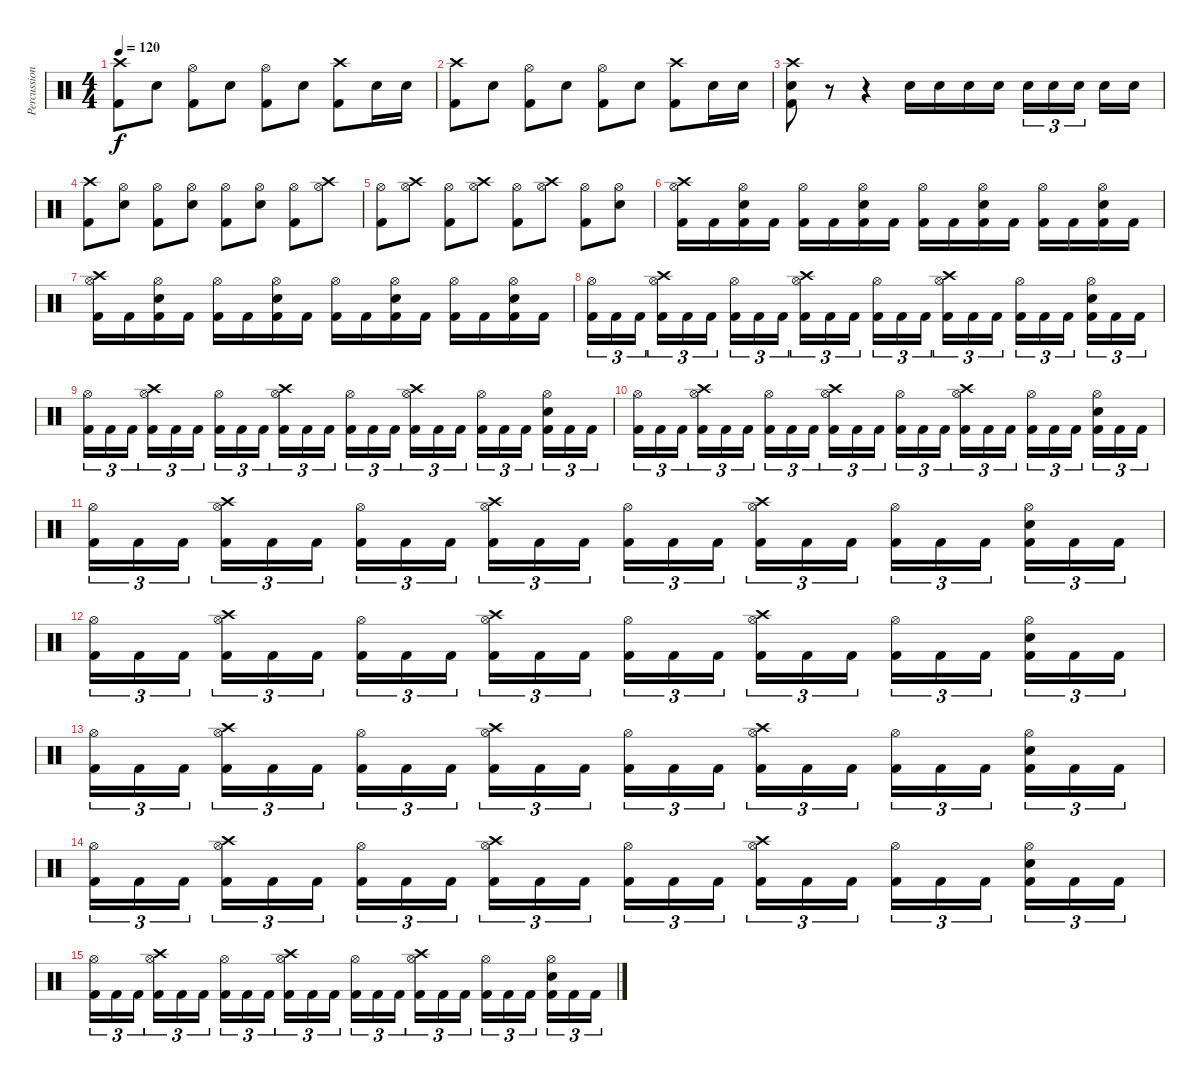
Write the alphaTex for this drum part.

\track ("Percussion" "Percussion") {instrument percussion}
\staff {score}
\articulation defaults
\ts (4 4)
\tempo 120
\clef neutral
\ks c
("Crash high (hit)" "Kick (hit) 2").8{dy f} "Electric Snare (hit)".8 ("Hi-Hat (open)" "Kick (hit) 2").8 "Electric Snare (hit)".8 ("Hi-Hat (open)" "Kick (hit) 2").8 "Electric Snare (hit)".8 ("Crash high (hit)" "Kick (hit) 2").8 "Electric Snare (hit)".16 "Electric Snare (hit)".16 |
("Crash high (hit)" "Kick (hit) 2").8 "Electric Snare (hit)".8 ("Hi-Hat (open)" "Kick (hit) 2").8 "Electric Snare (hit)".8 ("Hi-Hat (open)" "Kick (hit) 2").8 "Electric Snare (hit)".8 ("Crash high (hit)" "Kick (hit) 2").8 "Electric Snare (hit)".16 "Electric Snare (hit)".16 |
("Crash high (hit)" "Electric Snare (hit)" "Kick (hit) 2").8 r.8 r.4 "Electric Snare (hit)".16 "Electric Snare (hit)".16 "Electric Snare (hit)".16 "Electric Snare (hit)".16 "Electric Snare (hit)".16{tu (3 2)} "Electric Snare (hit)".16{tu (3 2)} "Electric Snare (hit)".16{tu (3 2)} "Electric Snare (hit)".16 "Electric Snare (hit)".16 |
("Kick (hit) 2" "Crash high (hit)").8 ("Electric Snare (hit)" "Hi-Hat (open)").8 ("Kick (hit) 2" "Hi-Hat (open)").8 ("Electric Snare (hit)" "Hi-Hat (open)").8 ("Kick (hit) 2" "Hi-Hat (open)").8 ("Electric Snare (hit)" "Hi-Hat (open)").8 ("Kick (hit) 2" "Hi-Hat (open)").8 ("Crash high (hit)" "Hi-Hat (open)").8 |
("Kick (hit) 2" "Hi-Hat (open)").8 ("Crash high (hit)" "Hi-Hat (open)").8 ("Kick (hit) 2" "Hi-Hat (open)").8 ("Crash high (hit)" "Hi-Hat (open)").8 ("Kick (hit) 2" "Hi-Hat (open)").8 ("Crash high (hit)" "Hi-Hat (open)").8 ("Kick (hit) 2" "Hi-Hat (open)").8 ("Electric Snare (hit)" "Hi-Hat (open)").8 |
("Crash high (hit)" "Kick (hit) 2" "Hi-Hat (open)").16 "Kick (hit) 2".16 ("Electric Snare (hit)" "Kick (hit) 2" "Hi-Hat (open)").16 "Kick (hit) 2".16 ("Kick (hit) 2" "Hi-Hat (open)").16 "Kick (hit) 2".16 ("Electric Snare (hit)" "Kick (hit) 2" "Hi-Hat (open)").16 "Kick (hit) 2".16 ("Kick (hit) 2" "Hi-Hat (open)").16 "Kick (hit) 2".16 ("Electric Snare (hit)" "Kick (hit) 2" "Hi-Hat (open)").16 "Kick (hit) 2".16 ("Kick (hit) 2" "Hi-Hat (open)").16 "Kick (hit) 2".16 ("Electric Snare (hit)" "Kick (hit) 2" "Hi-Hat (open)").16 "Kick (hit) 2".16 |
("Crash high (hit)" "Kick (hit) 2" "Hi-Hat (open)").16 "Kick (hit) 2".16 ("Electric Snare (hit)" "Kick (hit) 2" "Hi-Hat (open)").16 "Kick (hit) 2".16 ("Kick (hit) 2" "Hi-Hat (open)").16 "Kick (hit) 2".16 ("Electric Snare (hit)" "Kick (hit) 2" "Hi-Hat (open)").16 "Kick (hit) 2".16 ("Kick (hit) 2" "Hi-Hat (open)").16 "Kick (hit) 2".16 ("Electric Snare (hit)" "Kick (hit) 2" "Hi-Hat (open)").16 "Kick (hit) 2".16 ("Kick (hit) 2" "Hi-Hat (open)").16 "Kick (hit) 2".16 ("Electric Snare (hit)" "Kick (hit) 2" "Hi-Hat (open)").16 "Kick (hit) 2".16 |
("Kick (hit) 2" "Hi-Hat (open)").16{tu (3 2) volume 11} "Kick (hit) 2".16{tu (3 2)} "Kick (hit) 2".16{tu (3 2)} ("Crash high (hit)" "Kick (hit) 2" "Hi-Hat (open)").16{tu (3 2)} "Kick (hit) 2".16{tu (3 2)} "Kick (hit) 2".16{tu (3 2)} ("Kick (hit) 2" "Hi-Hat (open)").16{tu (3 2)} "Kick (hit) 2".16{tu (3 2)} "Kick (hit) 2".16{tu (3 2)} ("Crash high (hit)" "Kick (hit) 2" "Hi-Hat (open)").16{tu (3 2)} "Kick (hit) 2".16{tu (3 2)} "Kick (hit) 2".16{tu (3 2)} ("Kick (hit) 2" "Hi-Hat (open)").16{tu (3 2)} "Kick (hit) 2".16{tu (3 2)} "Kick (hit) 2".16{tu (3 2)} ("Crash high (hit)" "Kick (hit) 2" "Hi-Hat (open)").16{tu (3 2)} "Kick (hit) 2".16{tu (3 2)} "Kick (hit) 2".16{tu (3 2)} ("Kick (hit) 2" "Hi-Hat (open)").16{tu (3 2)} "Kick (hit) 2".16{tu (3 2)} "Kick (hit) 2".16{tu (3 2)} ("Electric Snare (hit)" "Kick (hit) 2" "Hi-Hat (open)").16{tu (3 2)} "Kick (hit) 2".16{tu (3 2)} "Kick (hit) 2".16{tu (3 2)} |
("Kick (hit) 2" "Hi-Hat (open)").16{tu (3 2) volume 13} "Kick (hit) 2".16{tu (3 2)} "Kick (hit) 2".16{tu (3 2)} ("Crash high (hit)" "Kick (hit) 2" "Hi-Hat (open)").16{tu (3 2)} "Kick (hit) 2".16{tu (3 2)} "Kick (hit) 2".16{tu (3 2)} ("Kick (hit) 2" "Hi-Hat (open)").16{tu (3 2)} "Kick (hit) 2".16{tu (3 2)} "Kick (hit) 2".16{tu (3 2)} ("Crash high (hit)" "Kick (hit) 2" "Hi-Hat (open)").16{tu (3 2)} "Kick (hit) 2".16{tu (3 2)} "Kick (hit) 2".16{tu (3 2)} ("Kick (hit) 2" "Hi-Hat (open)").16{tu (3 2)} "Kick (hit) 2".16{tu (3 2)} "Kick (hit) 2".16{tu (3 2)} ("Crash high (hit)" "Kick (hit) 2" "Hi-Hat (open)").16{tu (3 2)} "Kick (hit) 2".16{tu (3 2)} "Kick (hit) 2".16{tu (3 2)} ("Kick (hit) 2" "Hi-Hat (open)").16{tu (3 2)} "Kick (hit) 2".16{tu (3 2)} "Kick (hit) 2".16{tu (3 2)} ("Electric Snare (hit)" "Kick (hit) 2" "Hi-Hat (open)").16{tu (3 2)} "Kick (hit) 2".16{tu (3 2)} "Kick (hit) 2".16{tu (3 2)} |
("Kick (hit) 2" "Hi-Hat (open)").16{tu (3 2) volume 10} "Kick (hit) 2".16{tu (3 2)} "Kick (hit) 2".16{tu (3 2)} ("Crash high (hit)" "Kick (hit) 2" "Hi-Hat (open)").16{tu (3 2)} "Kick (hit) 2".16{tu (3 2)} "Kick (hit) 2".16{tu (3 2)} ("Kick (hit) 2" "Hi-Hat (open)").16{tu (3 2)} "Kick (hit) 2".16{tu (3 2)} "Kick (hit) 2".16{tu (3 2)} ("Crash high (hit)" "Kick (hit) 2" "Hi-Hat (open)").16{tu (3 2)} "Kick (hit) 2".16{tu (3 2)} "Kick (hit) 2".16{tu (3 2)} ("Kick (hit) 2" "Hi-Hat (open)").16{tu (3 2)} "Kick (hit) 2".16{tu (3 2)} "Kick (hit) 2".16{tu (3 2)} ("Crash high (hit)" "Kick (hit) 2" "Hi-Hat (open)").16{tu (3 2)} "Kick (hit) 2".16{tu (3 2)} "Kick (hit) 2".16{tu (3 2)} ("Kick (hit) 2" "Hi-Hat (open)").16{tu (3 2)} "Kick (hit) 2".16{tu (3 2)} "Kick (hit) 2".16{tu (3 2)} ("Electric Snare (hit)" "Kick (hit) 2" "Hi-Hat (open)").16{tu (3 2)} "Kick (hit) 2".16{tu (3 2)} "Kick (hit) 2".16{tu (3 2)} |
("Kick (hit) 2" "Hi-Hat (open)").16{tu (3 2) volume 8} "Kick (hit) 2".16{tu (3 2)} "Kick (hit) 2".16{tu (3 2)} ("Crash high (hit)" "Kick (hit) 2" "Hi-Hat (open)").16{tu (3 2)} "Kick (hit) 2".16{tu (3 2)} "Kick (hit) 2".16{tu (3 2)} ("Kick (hit) 2" "Hi-Hat (open)").16{tu (3 2)} "Kick (hit) 2".16{tu (3 2)} "Kick (hit) 2".16{tu (3 2)} ("Crash high (hit)" "Kick (hit) 2" "Hi-Hat (open)").16{tu (3 2)} "Kick (hit) 2".16{tu (3 2)} "Kick (hit) 2".16{tu (3 2)} ("Kick (hit) 2" "Hi-Hat (open)").16{tu (3 2)} "Kick (hit) 2".16{tu (3 2)} "Kick (hit) 2".16{tu (3 2)} ("Crash high (hit)" "Kick (hit) 2" "Hi-Hat (open)").16{tu (3 2)} "Kick (hit) 2".16{tu (3 2)} "Kick (hit) 2".16{tu (3 2)} ("Kick (hit) 2" "Hi-Hat (open)").16{tu (3 2)} "Kick (hit) 2".16{tu (3 2)} "Kick (hit) 2".16{tu (3 2)} ("Electric Snare (hit)" "Kick (hit) 2" "Hi-Hat (open)").16{tu (3 2)} "Kick (hit) 2".16{tu (3 2)} "Kick (hit) 2".16{tu (3 2)} |
("Kick (hit) 2" "Hi-Hat (open)").16{tu (3 2) volume 6} "Kick (hit) 2".16{tu (3 2)} "Kick (hit) 2".16{tu (3 2)} ("Crash high (hit)" "Kick (hit) 2" "Hi-Hat (open)").16{tu (3 2)} "Kick (hit) 2".16{tu (3 2)} "Kick (hit) 2".16{tu (3 2)} ("Kick (hit) 2" "Hi-Hat (open)").16{tu (3 2)} "Kick (hit) 2".16{tu (3 2)} "Kick (hit) 2".16{tu (3 2)} ("Crash high (hit)" "Kick (hit) 2" "Hi-Hat (open)").16{tu (3 2)} "Kick (hit) 2".16{tu (3 2)} "Kick (hit) 2".16{tu (3 2)} ("Kick (hit) 2" "Hi-Hat (open)").16{tu (3 2)} "Kick (hit) 2".16{tu (3 2)} "Kick (hit) 2".16{tu (3 2)} ("Crash high (hit)" "Kick (hit) 2" "Hi-Hat (open)").16{tu (3 2)} "Kick (hit) 2".16{tu (3 2)} "Kick (hit) 2".16{tu (3 2)} ("Kick (hit) 2" "Hi-Hat (open)").16{tu (3 2)} "Kick (hit) 2".16{tu (3 2)} "Kick (hit) 2".16{tu (3 2)} ("Electric Snare (hit)" "Kick (hit) 2" "Hi-Hat (open)").16{tu (3 2)} "Kick (hit) 2".16{tu (3 2)} "Kick (hit) 2".16{tu (3 2)} |
("Kick (hit) 2" "Hi-Hat (open)").16{tu (3 2) volume 4} "Kick (hit) 2".16{tu (3 2)} "Kick (hit) 2".16{tu (3 2)} ("Crash high (hit)" "Kick (hit) 2" "Hi-Hat (open)").16{tu (3 2)} "Kick (hit) 2".16{tu (3 2)} "Kick (hit) 2".16{tu (3 2)} ("Kick (hit) 2" "Hi-Hat (open)").16{tu (3 2)} "Kick (hit) 2".16{tu (3 2)} "Kick (hit) 2".16{tu (3 2)} ("Crash high (hit)" "Kick (hit) 2" "Hi-Hat (open)").16{tu (3 2)} "Kick (hit) 2".16{tu (3 2)} "Kick (hit) 2".16{tu (3 2)} ("Kick (hit) 2" "Hi-Hat (open)").16{tu (3 2)} "Kick (hit) 2".16{tu (3 2)} "Kick (hit) 2".16{tu (3 2)} ("Crash high (hit)" "Kick (hit) 2" "Hi-Hat (open)").16{tu (3 2)} "Kick (hit) 2".16{tu (3 2)} "Kick (hit) 2".16{tu (3 2)} ("Kick (hit) 2" "Hi-Hat (open)").16{tu (3 2)} "Kick (hit) 2".16{tu (3 2)} "Kick (hit) 2".16{tu (3 2)} ("Electric Snare (hit)" "Kick (hit) 2" "Hi-Hat (open)").16{tu (3 2)} "Kick (hit) 2".16{tu (3 2)} "Kick (hit) 2".16{tu (3 2)} |
("Kick (hit) 2" "Hi-Hat (open)").16{tu (3 2) volume 2} "Kick (hit) 2".16{tu (3 2)} "Kick (hit) 2".16{tu (3 2)} ("Crash high (hit)" "Kick (hit) 2" "Hi-Hat (open)").16{tu (3 2)} "Kick (hit) 2".16{tu (3 2)} "Kick (hit) 2".16{tu (3 2)} ("Kick (hit) 2" "Hi-Hat (open)").16{tu (3 2)} "Kick (hit) 2".16{tu (3 2)} "Kick (hit) 2".16{tu (3 2)} ("Crash high (hit)" "Kick (hit) 2" "Hi-Hat (open)").16{tu (3 2)} "Kick (hit) 2".16{tu (3 2)} "Kick (hit) 2".16{tu (3 2)} ("Kick (hit) 2" "Hi-Hat (open)").16{tu (3 2)} "Kick (hit) 2".16{tu (3 2)} "Kick (hit) 2".16{tu (3 2)} ("Crash high (hit)" "Kick (hit) 2" "Hi-Hat (open)").16{tu (3 2)} "Kick (hit) 2".16{tu (3 2)} "Kick (hit) 2".16{tu (3 2)} ("Kick (hit) 2" "Hi-Hat (open)").16{tu (3 2)} "Kick (hit) 2".16{tu (3 2)} "Kick (hit) 2".16{tu (3 2)} ("Electric Snare (hit)" "Kick (hit) 2" "Hi-Hat (open)").16{tu (3 2)} "Kick (hit) 2".16{tu (3 2)} "Kick (hit) 2".16{tu (3 2)} |
("Kick (hit) 2" "Hi-Hat (open)").16{tu (3 2) volume 0} "Kick (hit) 2".16{tu (3 2)} "Kick (hit) 2".16{tu (3 2)} ("Crash high (hit)" "Kick (hit) 2" "Hi-Hat (open)").16{tu (3 2)} "Kick (hit) 2".16{tu (3 2)} "Kick (hit) 2".16{tu (3 2)} ("Kick (hit) 2" "Hi-Hat (open)").16{tu (3 2)} "Kick (hit) 2".16{tu (3 2)} "Kick (hit) 2".16{tu (3 2)} ("Crash high (hit)" "Kick (hit) 2" "Hi-Hat (open)").16{tu (3 2)} "Kick (hit) 2".16{tu (3 2)} "Kick (hit) 2".16{tu (3 2)} ("Kick (hit) 2" "Hi-Hat (open)").16{tu (3 2)} "Kick (hit) 2".16{tu (3 2)} "Kick (hit) 2".16{tu (3 2)} ("Crash high (hit)" "Kick (hit) 2" "Hi-Hat (open)").16{tu (3 2)} "Kick (hit) 2".16{tu (3 2)} "Kick (hit) 2".16{tu (3 2)} ("Kick (hit) 2" "Hi-Hat (open)").16{tu (3 2)} "Kick (hit) 2".16{tu (3 2)} "Kick (hit) 2".16{tu (3 2)} ("Electric Snare (hit)" "Kick (hit) 2" "Hi-Hat (open)").16{tu (3 2)} "Kick (hit) 2".16{tu (3 2)} "Kick (hit) 2".16{tu (3 2)}
